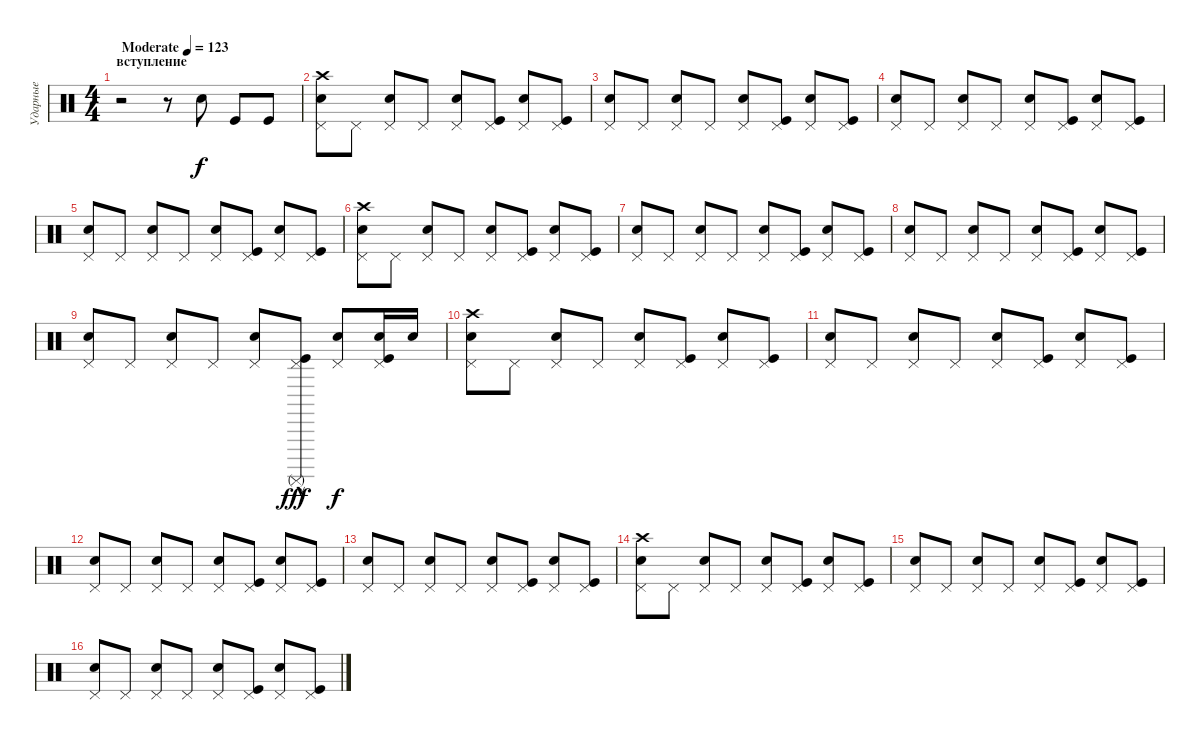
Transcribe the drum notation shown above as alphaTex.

\track ("Ударные" "Ударные") {instrument percussion}
\staff {score}
\articulation defaults
\ts (4 4)
\section ("" "вступление")
\tempo (123 "Moderate")
\clef neutral
\ks c
r.2{dy f} r.8 "Snare (hit) 2".8 "Kick (hit)".8 "Kick (hit)".8 |
("Pedal Hi-Hat (hit)" "Snare (hit) 2" "Crash high (hit)").8 "Pedal Hi-Hat (hit)".8 ("Pedal Hi-Hat (hit)" "Snare (hit) 2").8 "Pedal Hi-Hat (hit)".8 ("Pedal Hi-Hat (hit)" "Snare (hit) 2").8 ("Pedal Hi-Hat (hit)" "Kick (hit)").8 ("Pedal Hi-Hat (hit)" "Snare (hit) 2").8 ("Pedal Hi-Hat (hit)" "Kick (hit)").8 |
("Pedal Hi-Hat (hit)" "Snare (hit) 2").8 "Pedal Hi-Hat (hit)".8 ("Pedal Hi-Hat (hit)" "Snare (hit) 2").8 "Pedal Hi-Hat (hit)".8 ("Pedal Hi-Hat (hit)" "Snare (hit) 2").8 ("Pedal Hi-Hat (hit)" "Kick (hit)").8 ("Pedal Hi-Hat (hit)" "Snare (hit) 2").8 ("Pedal Hi-Hat (hit)" "Kick (hit)").8 |
("Pedal Hi-Hat (hit)" "Snare (hit) 2").8 "Pedal Hi-Hat (hit)".8 ("Pedal Hi-Hat (hit)" "Snare (hit) 2").8 "Pedal Hi-Hat (hit)".8 ("Pedal Hi-Hat (hit)" "Snare (hit) 2").8 ("Pedal Hi-Hat (hit)" "Kick (hit)").8 ("Pedal Hi-Hat (hit)" "Snare (hit) 2").8 ("Pedal Hi-Hat (hit)" "Kick (hit)").8 |
("Pedal Hi-Hat (hit)" "Snare (hit) 2").8 "Pedal Hi-Hat (hit)".8 ("Pedal Hi-Hat (hit)" "Snare (hit) 2").8 "Pedal Hi-Hat (hit)".8 ("Pedal Hi-Hat (hit)" "Snare (hit) 2").8 ("Pedal Hi-Hat (hit)" "Kick (hit)").8 ("Pedal Hi-Hat (hit)" "Snare (hit) 2").8 ("Pedal Hi-Hat (hit)" "Kick (hit)").8 |
("Pedal Hi-Hat (hit)" "Snare (hit) 2" "Crash high (hit)").8 "Pedal Hi-Hat (hit)".8 ("Pedal Hi-Hat (hit)" "Snare (hit) 2").8 "Pedal Hi-Hat (hit)".8 ("Pedal Hi-Hat (hit)" "Snare (hit) 2").8 ("Pedal Hi-Hat (hit)" "Kick (hit)").8 ("Pedal Hi-Hat (hit)" "Snare (hit) 2").8 ("Pedal Hi-Hat (hit)" "Kick (hit)").8 |
("Pedal Hi-Hat (hit)" "Snare (hit) 2").8 "Pedal Hi-Hat (hit)".8 ("Pedal Hi-Hat (hit)" "Snare (hit) 2").8 "Pedal Hi-Hat (hit)".8 ("Pedal Hi-Hat (hit)" "Snare (hit) 2").8 ("Pedal Hi-Hat (hit)" "Kick (hit)").8 ("Pedal Hi-Hat (hit)" "Snare (hit) 2").8 ("Pedal Hi-Hat (hit)" "Kick (hit)").8 |
("Pedal Hi-Hat (hit)" "Snare (hit) 2").8 "Pedal Hi-Hat (hit)".8 ("Pedal Hi-Hat (hit)" "Snare (hit) 2").8 "Pedal Hi-Hat (hit)".8 ("Pedal Hi-Hat (hit)" "Snare (hit) 2").8 ("Pedal Hi-Hat (hit)" "Kick (hit)").8 ("Pedal Hi-Hat (hit)" "Snare (hit) 2").8 ("Pedal Hi-Hat (hit)" "Kick (hit)").8 |
("Pedal Hi-Hat (hit)" "Snare (hit) 2").8 "Pedal Hi-Hat (hit)".8 ("Pedal Hi-Hat (hit)" "Snare (hit) 2").8 "Pedal Hi-Hat (hit)".8 ("Pedal Hi-Hat (hit)" "Snare (hit) 2").8 ("Pedal Hi-Hat (hit)" "Kick (hit)" "Surdo (mute)"{hac}).8{dy fff} ("Pedal Hi-Hat (hit)" "Snare (hit) 2").8{dy f} ("Pedal Hi-Hat (hit)" "Kick (hit)" "Snare (hit) 2").16 "Snare (hit) 2".16 |
("Pedal Hi-Hat (hit)" "Snare (hit) 2" "Crash high (hit)").8 "Pedal Hi-Hat (hit)".8 ("Pedal Hi-Hat (hit)" "Snare (hit) 2").8 "Pedal Hi-Hat (hit)".8 ("Pedal Hi-Hat (hit)" "Snare (hit) 2").8 ("Pedal Hi-Hat (hit)" "Kick (hit)").8 ("Pedal Hi-Hat (hit)" "Snare (hit) 2").8 ("Pedal Hi-Hat (hit)" "Kick (hit)").8 |
("Pedal Hi-Hat (hit)" "Snare (hit) 2").8 "Pedal Hi-Hat (hit)".8 ("Pedal Hi-Hat (hit)" "Snare (hit) 2").8 "Pedal Hi-Hat (hit)".8 ("Pedal Hi-Hat (hit)" "Snare (hit) 2").8 ("Pedal Hi-Hat (hit)" "Kick (hit)").8 ("Pedal Hi-Hat (hit)" "Snare (hit) 2").8 ("Pedal Hi-Hat (hit)" "Kick (hit)").8 |
("Pedal Hi-Hat (hit)" "Snare (hit) 2").8 "Pedal Hi-Hat (hit)".8 ("Pedal Hi-Hat (hit)" "Snare (hit) 2").8 "Pedal Hi-Hat (hit)".8 ("Pedal Hi-Hat (hit)" "Snare (hit) 2").8 ("Pedal Hi-Hat (hit)" "Kick (hit)").8 ("Pedal Hi-Hat (hit)" "Snare (hit) 2").8 ("Pedal Hi-Hat (hit)" "Kick (hit)").8 |
("Pedal Hi-Hat (hit)" "Snare (hit) 2").8 "Pedal Hi-Hat (hit)".8 ("Pedal Hi-Hat (hit)" "Snare (hit) 2").8 "Pedal Hi-Hat (hit)".8 ("Pedal Hi-Hat (hit)" "Snare (hit) 2").8 ("Pedal Hi-Hat (hit)" "Kick (hit)").8 ("Pedal Hi-Hat (hit)" "Snare (hit) 2").8 ("Pedal Hi-Hat (hit)" "Kick (hit)").8 |
("Pedal Hi-Hat (hit)" "Snare (hit) 2" "Crash high (hit)").8 "Pedal Hi-Hat (hit)".8 ("Pedal Hi-Hat (hit)" "Snare (hit) 2").8 "Pedal Hi-Hat (hit)".8 ("Pedal Hi-Hat (hit)" "Snare (hit) 2").8 ("Pedal Hi-Hat (hit)" "Kick (hit)").8 ("Pedal Hi-Hat (hit)" "Snare (hit) 2").8 ("Pedal Hi-Hat (hit)" "Kick (hit)").8 |
("Pedal Hi-Hat (hit)" "Snare (hit) 2").8 "Pedal Hi-Hat (hit)".8 ("Pedal Hi-Hat (hit)" "Snare (hit) 2").8 "Pedal Hi-Hat (hit)".8 ("Pedal Hi-Hat (hit)" "Snare (hit) 2").8 ("Pedal Hi-Hat (hit)" "Kick (hit)").8 ("Pedal Hi-Hat (hit)" "Snare (hit) 2").8 ("Pedal Hi-Hat (hit)" "Kick (hit)").8 |
("Pedal Hi-Hat (hit)" "Snare (hit) 2").8 "Pedal Hi-Hat (hit)".8 ("Pedal Hi-Hat (hit)" "Snare (hit) 2").8 "Pedal Hi-Hat (hit)".8 ("Pedal Hi-Hat (hit)" "Snare (hit) 2").8 ("Pedal Hi-Hat (hit)" "Kick (hit)").8 ("Pedal Hi-Hat (hit)" "Snare (hit) 2").8 ("Pedal Hi-Hat (hit)" "Kick (hit)").8
